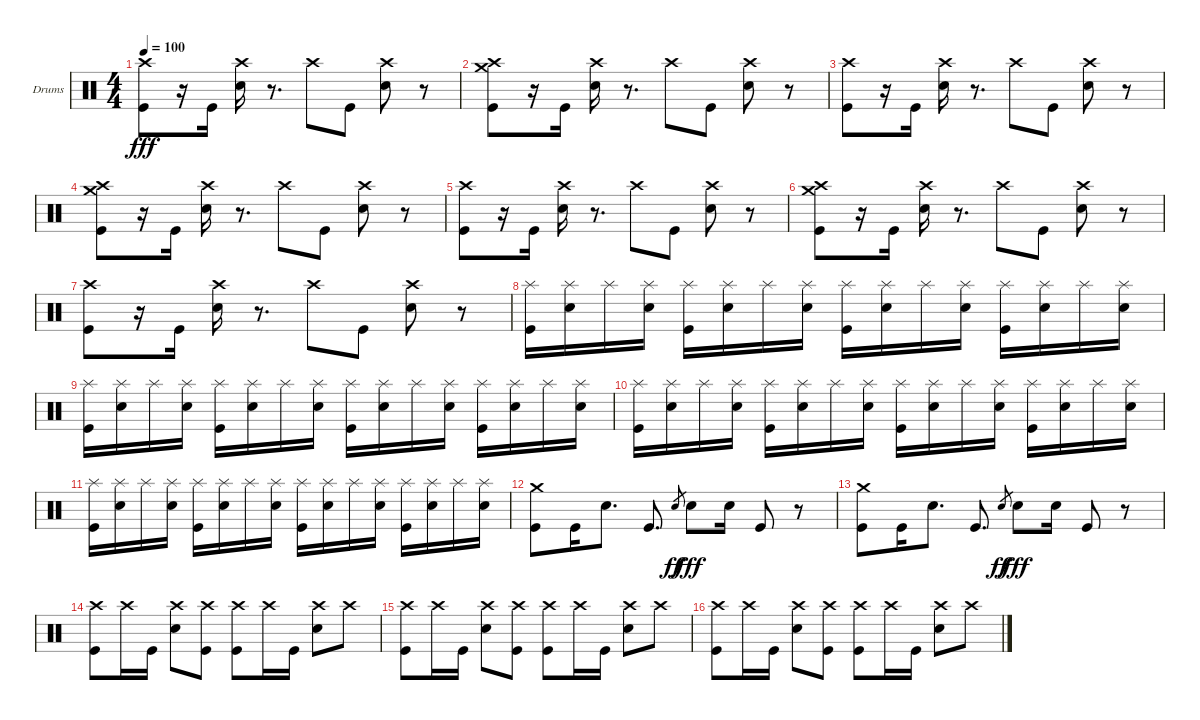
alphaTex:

\bracketExtendMode groupsimilarinstruments
\firstSystemTrackNameOrientation horizontal
\otherSystemsTrackNameOrientation horizontal
\track ("Lars Ulrich (Drum)" "Drums") {instrument percussion}
\staff {score}
\articulation defaults
\ts (4 4)
\tempo 100
\clef neutral
\scale
0.333333
\ks c
("Crash high (hit)" "Kick (hit)").8{dy fff} r.16 "Kick (hit)".16 ("Crash high (hit)" "Snare (hit) 2").16 r.8{d} "Crash high (hit)".8 "Kick (hit)".8 ("Crash high (hit)" "Snare (hit) 2").8 r.8 |
\scale
0.333333 ("Crash medium (hit)" "Crash high (hit)" "Kick (hit)").8 r.16 "Kick (hit)".16 ("Crash high (hit)" "Snare (hit) 2").16 r.8{d} "Crash high (hit)".8 "Kick (hit)".8 ("Crash high (hit)" "Snare (hit) 2").8 r.8 |
\scale
0.333333 ("Crash high (hit)" "Kick (hit)").8 r.16 "Kick (hit)".16 ("Crash high (hit)" "Snare (hit) 2").16 r.8{d} "Crash high (hit)".8 "Kick (hit)".8 ("Crash high (hit)" "Snare (hit) 2").8 r.8 |
\scale
0.333333 ("Crash medium (hit)" "Crash high (hit)" "Kick (hit)").8 r.16 "Kick (hit)".16 ("Crash high (hit)" "Snare (hit) 2").16 r.8{d} "Crash high (hit)".8 "Kick (hit)".8 ("Crash high (hit)" "Snare (hit) 2").8 r.8 |
\scale
0.333333 ("Crash high (hit)" "Kick (hit)").8 r.16 "Kick (hit)".16 ("Crash high (hit)" "Snare (hit) 2").16 r.8{d} "Crash high (hit)".8 "Kick (hit)".8 ("Crash high (hit)" "Snare (hit) 2").8 r.8 |
\scale
0.333333 ("Crash medium (hit)" "Crash high (hit)" "Kick (hit)").8 r.16 "Kick (hit)".16 ("Crash high (hit)" "Snare (hit) 2").16 r.8{d} "Crash high (hit)".8 "Kick (hit)".8 ("Crash high (hit)" "Snare (hit) 2").8 r.8 |
\scale
0.333333 ("Crash high (hit)" "Kick (hit)").8 r.16 "Kick (hit)".16 ("Crash high (hit)" "Snare (hit) 2").16 r.8{d} "Crash high (hit)".8 "Kick (hit)".8 ("Crash high (hit)" "Snare (hit) 2").8 r.8 |
\scale
0.333333 ("Splash (hit)" "Kick (hit)").16 ("Splash (hit)" "Snare (hit) 2").16 "Splash (hit)".16 ("Splash (hit)" "Snare (hit) 2").16 ("Splash (hit)" "Kick (hit)").16 ("Splash (hit)" "Snare (hit) 2").16 "Splash (hit)".16 ("Splash (hit)" "Snare (hit) 2").16 ("Splash (hit)" "Kick (hit)").16 ("Splash (hit)" "Snare (hit) 2").16 "Splash (hit)".16 ("Splash (hit)" "Snare (hit) 2").16 ("Splash (hit)" "Kick (hit)").16 ("Splash (hit)" "Snare (hit) 2").16 "Splash (hit)".16 ("Splash (hit)" "Snare (hit) 2").16 |
\scale
0.333333 ("Splash (hit)" "Kick (hit)").16 ("Splash (hit)" "Snare (hit) 2").16 "Splash (hit)".16 ("Splash (hit)" "Snare (hit) 2").16 ("Splash (hit)" "Kick (hit)").16 ("Splash (hit)" "Snare (hit) 2").16 "Splash (hit)".16 ("Splash (hit)" "Snare (hit) 2").16 ("Splash (hit)" "Kick (hit)").16 ("Splash (hit)" "Snare (hit) 2").16 "Splash (hit)".16 ("Splash (hit)" "Snare (hit) 2").16 ("Splash (hit)" "Kick (hit)").16 ("Splash (hit)" "Snare (hit) 2").16 "Splash (hit)".16 ("Splash (hit)" "Snare (hit) 2").16 |
\scale
0.333333 ("Splash (hit)" "Kick (hit)").16 ("Splash (hit)" "Snare (hit) 2").16 "Splash (hit)".16 ("Splash (hit)" "Snare (hit) 2").16 ("Splash (hit)" "Kick (hit)").16 ("Splash (hit)" "Snare (hit) 2").16 "Splash (hit)".16 ("Splash (hit)" "Snare (hit) 2").16 ("Splash (hit)" "Kick (hit)").16 ("Splash (hit)" "Snare (hit) 2").16 "Splash (hit)".16 ("Splash (hit)" "Snare (hit) 2").16 ("Splash (hit)" "Kick (hit)").16 ("Splash (hit)" "Snare (hit) 2").16 "Splash (hit)".16 ("Splash (hit)" "Snare (hit) 2").16 |
\scale
0.333333 ("Splash (hit)" "Kick (hit)").16 ("Splash (hit)" "Snare (hit) 2").16 "Splash (hit)".16 ("Splash (hit)" "Snare (hit) 2").16 ("Splash (hit)" "Kick (hit)").16 ("Splash (hit)" "Snare (hit) 2").16 "Splash (hit)".16 ("Splash (hit)" "Snare (hit) 2").16 ("Splash (hit)" "Kick (hit)").16 ("Splash (hit)" "Snare (hit) 2").16 "Splash (hit)".16 ("Splash (hit)" "Snare (hit) 2").16 ("Splash (hit)" "Kick (hit)").16 ("Splash (hit)" "Snare (hit) 2").16 "Splash (hit)".16 ("Splash (hit)" "Snare (hit) 2").16 |
\scale
0.333333 ("Crash medium (hit)" "Kick (hit)").8 "Kick (hit)".16 "Snare (hit) 2".8{d} "Kick (hit)".8{d} "Snare (hit) 2".8{gr dy ff} "Snare (hit) 2".8{dy fff} "Snare (hit) 2".16 "Kick (hit)".8 r.8 |
\scale
0.333333 ("Crash medium (hit)" "Kick (hit)").8 "Kick (hit)".16 "Snare (hit) 2".8{d} "Kick (hit)".8{d} "Snare (hit) 2".8{gr dy ff} "Snare (hit) 2".8{dy fff} "Snare (hit) 2".16 "Kick (hit)".8 r.8 |
\scale
0.333333 ("Crash high (hit)" "Kick (hit)").8 "Crash high (hit)".16 "Kick (hit)".16 ("Crash high (hit)" "Snare (hit) 2").8 ("Crash high (hit)" "Kick (hit)").8 ("Crash high (hit)" "Kick (hit)").8 "Crash high (hit)".16 "Kick (hit)".16 ("Crash high (hit)" "Snare (hit) 2").8 "Crash high (hit)".8 |
\scale
0.333333 ("Crash high (hit)" "Kick (hit)").8 "Crash high (hit)".16 "Kick (hit)".16 ("Crash high (hit)" "Snare (hit) 2").8 ("Crash high (hit)" "Kick (hit)").8 ("Crash high (hit)" "Kick (hit)").8 "Crash high (hit)".16 "Kick (hit)".16 ("Crash high (hit)" "Snare (hit) 2").8 "Crash high (hit)".8 |
\scale
0.333333 ("Crash high (hit)" "Kick (hit)").8 "Crash high (hit)".16 "Kick (hit)".16 ("Crash high (hit)" "Snare (hit) 2").8 ("Crash high (hit)" "Kick (hit)").8 ("Crash high (hit)" "Kick (hit)").8 "Crash high (hit)".16 "Kick (hit)".16 ("Crash high (hit)" "Snare (hit) 2").8 "Crash high (hit)".8
